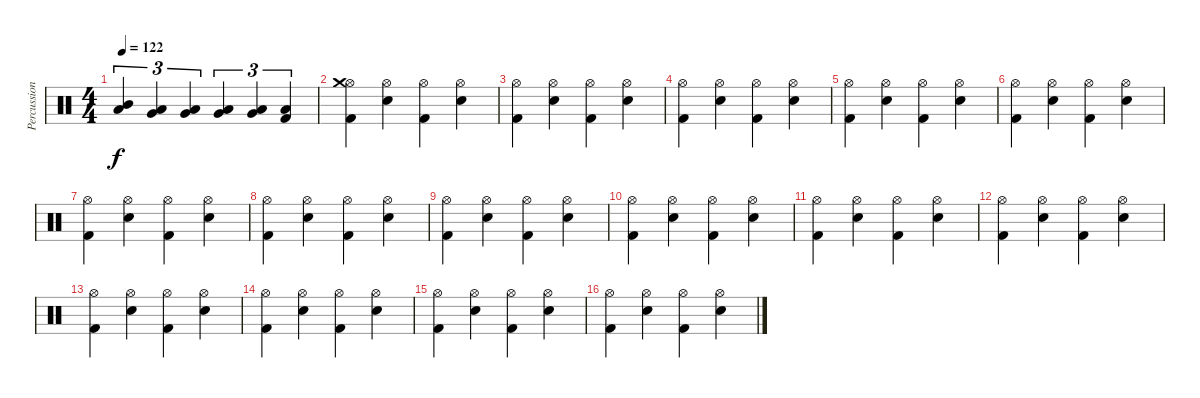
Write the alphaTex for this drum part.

\track ("Percussion" "Percussion") {instrument percussion}
\staff {score}
\articulation defaults
\ts (4 4)
\tempo 122
\clef neutral
\ks c
("Mid Tom (hit)" "Low Tom (hit)").4{tu (3 2) dy f} ("Low Tom (hit)" "Very Low Tom (hit)").4{tu (3 2)} ("Low Tom (hit)" "Very Low Tom (hit)").4{tu (3 2)} ("Low Tom (hit)" "Very Low Tom (hit)").4{tu (3 2)} ("Very Low Tom (hit)" "Low Floor Tom (hit)").4{tu (3 2)} ("Low Floor Tom (hit)" "Kick (hit) 2").4{tu (3 2)} |
("Hi-Hat (open)" "Crash medium (hit)" "Kick (hit) 2").4 ("Hi-Hat (open)" "Electric Snare (hit)").4 ("Hi-Hat (open)" "Kick (hit) 2").4 ("Hi-Hat (open)" "Electric Snare (hit)").4 |
("Hi-Hat (open)" "Kick (hit) 2").4 ("Hi-Hat (open)" "Electric Snare (hit)").4 ("Hi-Hat (open)" "Kick (hit) 2").4 ("Hi-Hat (open)" "Electric Snare (hit)").4 |
("Hi-Hat (open)" "Kick (hit) 2").4 ("Hi-Hat (open)" "Electric Snare (hit)").4 ("Hi-Hat (open)" "Kick (hit) 2").4 ("Hi-Hat (open)" "Electric Snare (hit)").4 |
("Hi-Hat (open)" "Kick (hit) 2").4 ("Hi-Hat (open)" "Electric Snare (hit)").4 ("Hi-Hat (open)" "Kick (hit) 2").4 ("Hi-Hat (open)" "Electric Snare (hit)").4 |
("Hi-Hat (open)" "Kick (hit) 2").4 ("Hi-Hat (open)" "Electric Snare (hit)").4 ("Hi-Hat (open)" "Kick (hit) 2").4 ("Hi-Hat (open)" "Electric Snare (hit)").4 |
("Hi-Hat (open)" "Kick (hit) 2").4 ("Hi-Hat (open)" "Electric Snare (hit)").4 ("Hi-Hat (open)" "Kick (hit) 2").4 ("Hi-Hat (open)" "Electric Snare (hit)").4 |
("Hi-Hat (open)" "Kick (hit) 2").4 ("Hi-Hat (open)" "Electric Snare (hit)").4 ("Hi-Hat (open)" "Kick (hit) 2").4 ("Hi-Hat (open)" "Electric Snare (hit)").4 |
("Hi-Hat (open)" "Kick (hit) 2").4 ("Hi-Hat (open)" "Electric Snare (hit)").4 ("Hi-Hat (open)" "Kick (hit) 2").4 ("Hi-Hat (open)" "Electric Snare (hit)").4 |
("Hi-Hat (open)" "Kick (hit) 2").4 ("Hi-Hat (open)" "Electric Snare (hit)").4 ("Hi-Hat (open)" "Kick (hit) 2").4 ("Hi-Hat (open)" "Electric Snare (hit)").4 |
("Hi-Hat (open)" "Kick (hit) 2").4 ("Hi-Hat (open)" "Electric Snare (hit)").4 ("Hi-Hat (open)" "Kick (hit) 2").4 ("Hi-Hat (open)" "Electric Snare (hit)").4 |
("Hi-Hat (open)" "Kick (hit) 2").4 ("Hi-Hat (open)" "Electric Snare (hit)").4 ("Hi-Hat (open)" "Kick (hit) 2").4 ("Hi-Hat (open)" "Electric Snare (hit)").4 |
("Hi-Hat (open)" "Kick (hit) 2").4 ("Hi-Hat (open)" "Electric Snare (hit)").4 ("Hi-Hat (open)" "Kick (hit) 2").4 ("Hi-Hat (open)" "Electric Snare (hit)").4 |
("Hi-Hat (open)" "Kick (hit) 2").4 ("Hi-Hat (open)" "Electric Snare (hit)").4 ("Hi-Hat (open)" "Kick (hit) 2").4 ("Hi-Hat (open)" "Electric Snare (hit)").4 |
("Hi-Hat (open)" "Kick (hit) 2").4 ("Hi-Hat (open)" "Electric Snare (hit)").4 ("Hi-Hat (open)" "Kick (hit) 2").4 ("Hi-Hat (open)" "Electric Snare (hit)").4 |
("Hi-Hat (open)" "Kick (hit) 2").4 ("Hi-Hat (open)" "Electric Snare (hit)").4 ("Hi-Hat (open)" "Kick (hit) 2").4 ("Hi-Hat (open)" "Electric Snare (hit)").4
